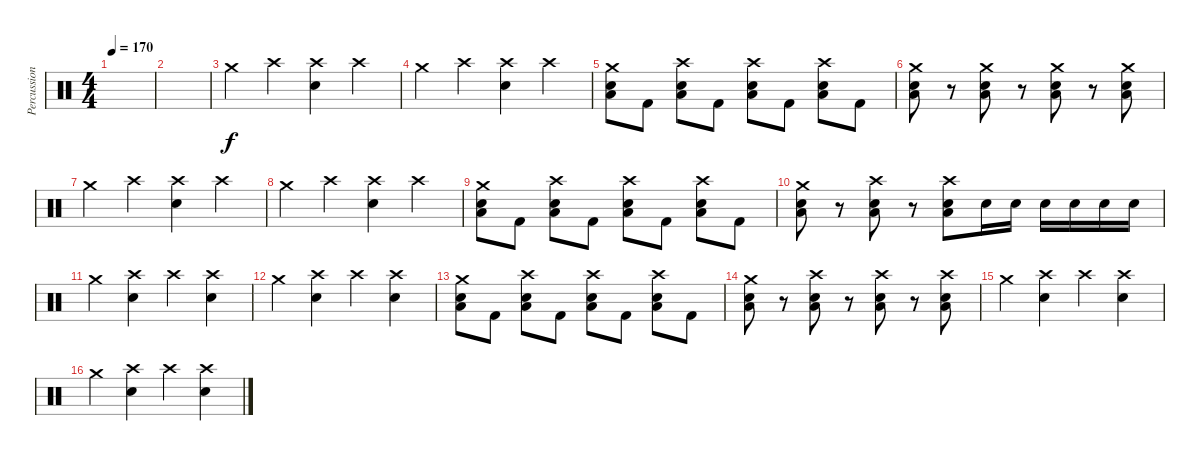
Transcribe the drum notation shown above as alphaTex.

\track ("Percussion" "Percussion") {solo instrument percussion}
\staff {score}
\articulation defaults
\ts (4 4)
\tempo 170
\clef neutral
\ks c
|
|
"Crash medium (hit)".4 "Crash high (hit)".4 ("Crash high (hit)" "Electric Snare (hit)").4 "Crash high (hit)".4 |
"Crash medium (hit)".4 "Crash high (hit)".4 ("Crash high (hit)" "Electric Snare (hit)").4 "Crash high (hit)".4 |
("Electric Snare (hit)" "Low Floor Tom (hit)" "Crash medium (hit)").8 "Kick (hit) 2".8 ("Electric Snare (hit)" "Low Floor Tom (hit)" "Crash high (hit)").8 "Kick (hit) 2".8 ("Electric Snare (hit)" "Low Floor Tom (hit)" "Crash high (hit)").8 "Kick (hit) 2".8 ("Electric Snare (hit)" "Low Floor Tom (hit)" "Crash high (hit)").8 "Kick (hit) 2".8 |
("Electric Snare (hit)" "Low Floor Tom (hit)" "Crash medium (hit)").8 r.8 ("Electric Snare (hit)" "Low Floor Tom (hit)" "Crash medium (hit)").8 r.8 ("Electric Snare (hit)" "Low Floor Tom (hit)" "Crash medium (hit)").8 r.8 ("Electric Snare (hit)" "Low Floor Tom (hit)" "Crash medium (hit)").8 |
"Crash medium (hit)".4 "Crash high (hit)".4 ("Crash high (hit)" "Electric Snare (hit)").4 "Crash high (hit)".4 |
"Crash medium (hit)".4 "Crash high (hit)".4 ("Crash high (hit)" "Electric Snare (hit)").4 "Crash high (hit)".4 |
("Electric Snare (hit)" "Low Floor Tom (hit)" "Crash medium (hit)").8 "Kick (hit) 2".8 ("Electric Snare (hit)" "Low Floor Tom (hit)" "Crash high (hit)").8 "Kick (hit) 2".8 ("Electric Snare (hit)" "Low Floor Tom (hit)" "Crash high (hit)").8 "Kick (hit) 2".8 ("Electric Snare (hit)" "Low Floor Tom (hit)" "Crash high (hit)").8 "Kick (hit) 2".8 |
("Electric Snare (hit)" "Low Floor Tom (hit)" "Crash medium (hit)").8 r.8 ("Electric Snare (hit)" "Low Floor Tom (hit)" "Crash high (hit)").8 r.8 ("Electric Snare (hit)" "Low Floor Tom (hit)" "Crash high (hit)").8 "Electric Snare (hit)".16 "Electric Snare (hit)".16 "Electric Snare (hit)".16 "Electric Snare (hit)".16 "Electric Snare (hit)".16 "Electric Snare (hit)".16 |
"Crash medium (hit)".4 ("Crash high (hit)" "Electric Snare (hit)").4 "Crash high (hit)".4 ("Crash high (hit)" "Electric Snare (hit)").4 |
"Crash medium (hit)".4 ("Crash high (hit)" "Electric Snare (hit)").4 "Crash high (hit)".4 ("Crash high (hit)" "Electric Snare (hit)").4 |
("Electric Snare (hit)" "Low Floor Tom (hit)" "Crash medium (hit)").8 "Kick (hit) 2".8 ("Electric Snare (hit)" "Low Floor Tom (hit)" "Crash high (hit)").8 "Kick (hit) 2".8 ("Electric Snare (hit)" "Low Floor Tom (hit)" "Crash high (hit)").8 "Kick (hit) 2".8 ("Electric Snare (hit)" "Low Floor Tom (hit)" "Crash high (hit)").8 "Kick (hit) 2".8 |
("Electric Snare (hit)" "Low Floor Tom (hit)" "Crash medium (hit)").8 r.8 ("Electric Snare (hit)" "Low Floor Tom (hit)" "Crash high (hit)").8 r.8 ("Electric Snare (hit)" "Low Floor Tom (hit)" "Crash high (hit)").8 r.8 ("Electric Snare (hit)" "Low Floor Tom (hit)" "Crash high (hit)").8 |
"Crash medium (hit)".4 ("Crash high (hit)" "Electric Snare (hit)").4 "Crash high (hit)".4 ("Crash high (hit)" "Electric Snare (hit)").4 |
"Crash medium (hit)".4 ("Crash high (hit)" "Electric Snare (hit)").4 "Crash high (hit)".4 ("Crash high (hit)" "Electric Snare (hit)").4
